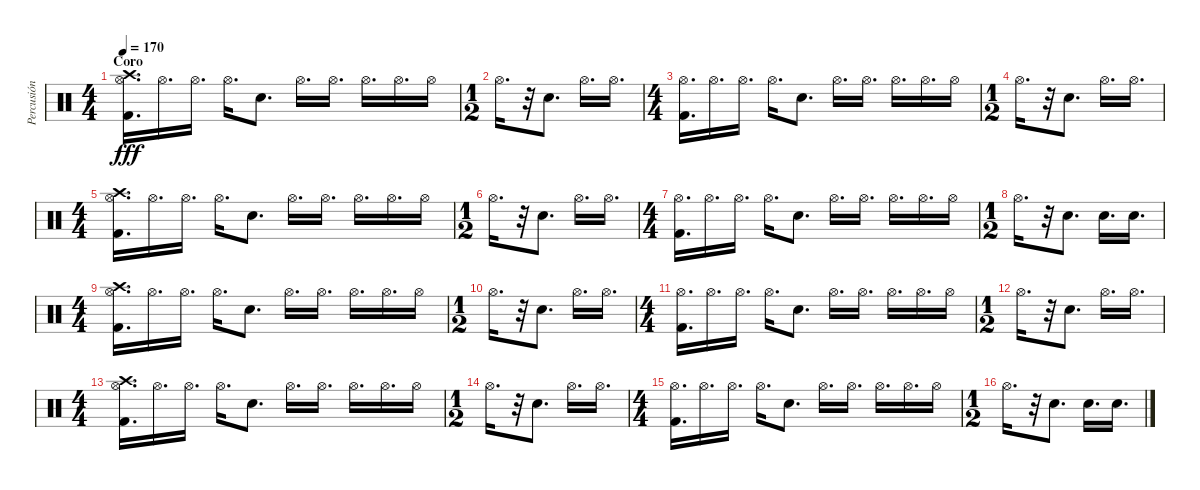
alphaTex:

\track ("Percusión" "Percusión") {instrument percussion}
\staff {score}
\articulation defaults
\ts (4 4)
\section ("" "Coro")
\tempo 170
\clef neutral
\ks c
("Crash high (hit)" "Hi-Hat (open)" "Kick (hit) 2").16{d dy fff} "Hi-Hat (open)".16{d} "Hi-Hat (open)".16{d} "Hi-Hat (open)".16{d} "Electric Snare (hit)".8{d} "Hi-Hat (open)".16{d} "Hi-Hat (open)".16{d} "Hi-Hat (open)".16{d} "Hi-Hat (open)".16{d} "Hi-Hat (open)".16 |
\ts (1 2)
"Hi-Hat (open)".16{d} r.32 "Electric Snare (hit)".8{d} "Hi-Hat (open)".16{d} "Hi-Hat (open)".16{d} |
\ts (4 4)
("Hi-Hat (open)" "Kick (hit) 2").16{d} "Hi-Hat (open)".16{d} "Hi-Hat (open)".16{d} "Hi-Hat (open)".16{d} "Electric Snare (hit)".8{d} "Hi-Hat (open)".16{d} "Hi-Hat (open)".16{d} "Hi-Hat (open)".16{d} "Hi-Hat (open)".16{d} "Hi-Hat (open)".16 |
\ts (1 2)
"Hi-Hat (open)".16{d} r.32 "Electric Snare (hit)".8{d} "Hi-Hat (open)".16{d} "Hi-Hat (open)".16{d} |
\ts (4 4)
("Crash high (hit)" "Hi-Hat (open)" "Kick (hit) 2").16{d} "Hi-Hat (open)".16{d} "Hi-Hat (open)".16{d} "Hi-Hat (open)".16{d} "Electric Snare (hit)".8{d} "Hi-Hat (open)".16{d} "Hi-Hat (open)".16{d} "Hi-Hat (open)".16{d} "Hi-Hat (open)".16{d} "Hi-Hat (open)".16 |
\ts (1 2)
"Hi-Hat (open)".16{d} r.32 "Electric Snare (hit)".8{d} "Hi-Hat (open)".16{d} "Hi-Hat (open)".16{d} |
\ts (4 4)
("Hi-Hat (open)" "Kick (hit) 2").16{d} "Hi-Hat (open)".16{d} "Hi-Hat (open)".16{d} "Hi-Hat (open)".16{d} "Electric Snare (hit)".8{d} "Hi-Hat (open)".16{d} "Hi-Hat (open)".16{d} "Hi-Hat (open)".16{d} "Hi-Hat (open)".16{d} "Hi-Hat (open)".16 |
\ts (1 2)
"Hi-Hat (open)".16{d} r.32 "Electric Snare (hit)".8{d} "Electric Snare (hit)".16{d} "Electric Snare (hit)".16{d} |
\ts (4 4)
("Crash high (hit)" "Hi-Hat (open)" "Kick (hit) 2").16{d} "Hi-Hat (open)".16{d} "Hi-Hat (open)".16{d} "Hi-Hat (open)".16{d} "Electric Snare (hit)".8{d} "Hi-Hat (open)".16{d} "Hi-Hat (open)".16{d} "Hi-Hat (open)".16{d} "Hi-Hat (open)".16{d} "Hi-Hat (open)".16 |
\ts (1 2)
"Hi-Hat (open)".16{d} r.32 "Electric Snare (hit)".8{d} "Hi-Hat (open)".16{d} "Hi-Hat (open)".16{d} |
\ts (4 4)
("Hi-Hat (open)" "Kick (hit) 2").16{d} "Hi-Hat (open)".16{d} "Hi-Hat (open)".16{d} "Hi-Hat (open)".16{d} "Electric Snare (hit)".8{d} "Hi-Hat (open)".16{d} "Hi-Hat (open)".16{d} "Hi-Hat (open)".16{d} "Hi-Hat (open)".16{d} "Hi-Hat (open)".16 |
\ts (1 2)
"Hi-Hat (open)".16{d} r.32 "Electric Snare (hit)".8{d} "Hi-Hat (open)".16{d} "Hi-Hat (open)".16{d} |
\ts (4 4)
("Crash high (hit)" "Hi-Hat (open)" "Kick (hit) 2").16{d} "Hi-Hat (open)".16{d} "Hi-Hat (open)".16{d} "Hi-Hat (open)".16{d} "Electric Snare (hit)".8{d} "Hi-Hat (open)".16{d} "Hi-Hat (open)".16{d} "Hi-Hat (open)".16{d} "Hi-Hat (open)".16{d} "Hi-Hat (open)".16 |
\ts (1 2)
"Hi-Hat (open)".16{d} r.32 "Electric Snare (hit)".8{d} "Hi-Hat (open)".16{d} "Hi-Hat (open)".16{d} |
\ts (4 4)
("Hi-Hat (open)" "Kick (hit) 2").16{d} "Hi-Hat (open)".16{d} "Hi-Hat (open)".16{d} "Hi-Hat (open)".16{d} "Electric Snare (hit)".8{d} "Hi-Hat (open)".16{d} "Hi-Hat (open)".16{d} "Hi-Hat (open)".16{d} "Hi-Hat (open)".16{d} "Hi-Hat (open)".16 |
\ts (1 2)
"Hi-Hat (open)".16{d} r.32 "Electric Snare (hit)".8{d} "Electric Snare (hit)".16{d} "Electric Snare (hit)".16{d}
